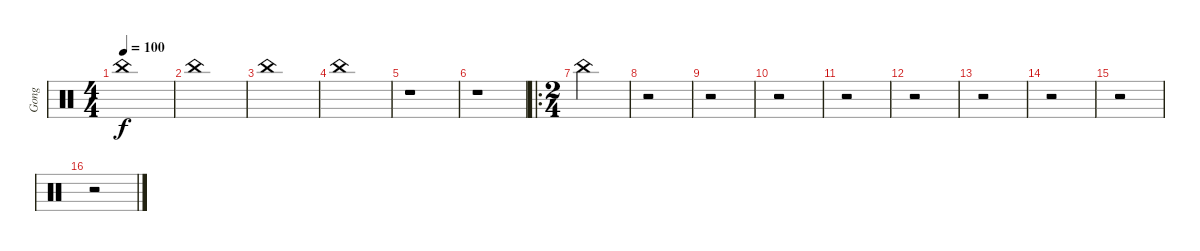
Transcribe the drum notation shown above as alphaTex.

\track ("Gong" "Gong") {instrument percussion}
\staff {score}
\articulation defaults
\ts (4 4)
\tempo 100
\clef neutral
\ks c "China (hit)".1{dy f}
|
"China (hit)".1 |
"China (hit)".1 |
"China (hit)".1 |
r.1 |
r.1 |
\ro
\ts (2 4)
"China (hit)".2 |
r.2 |
r.2 |
r.2 |
r.2 |
r.2 |
r.2 |
r.2 |
r.2 |
r.2
